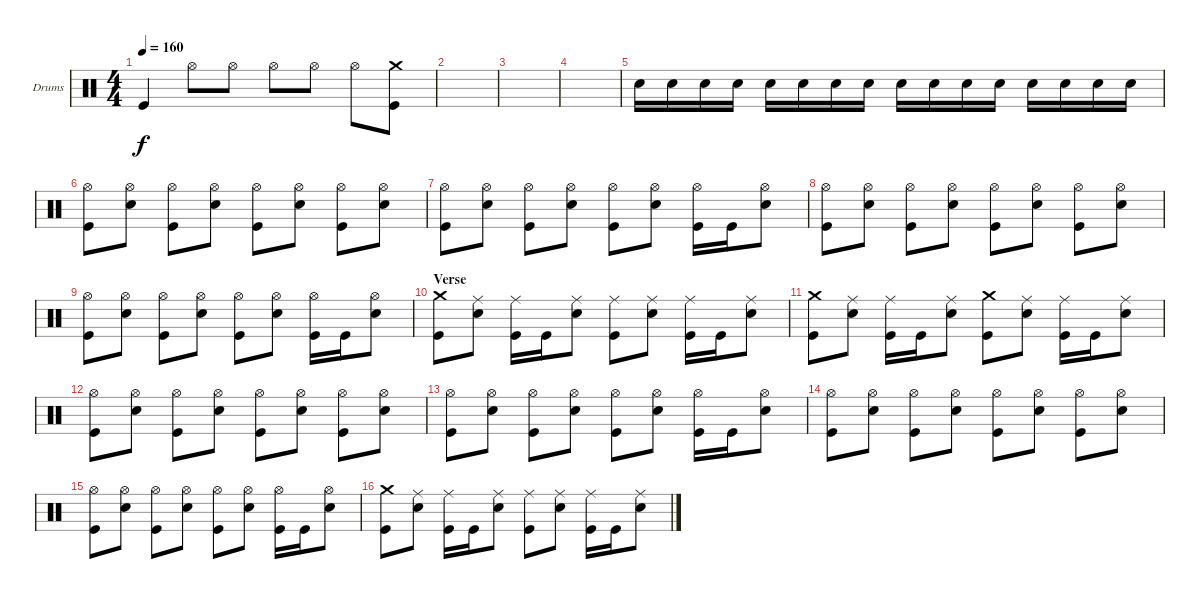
\bracketExtendMode groupsimilarinstruments
\firstSystemTrackNameOrientation horizontal
\otherSystemsTrackNameOrientation horizontal
\track ("Drums" "Drums") {instrument percussion}
\staff {score}
\articulation defaults
\ts (4 4)
\tempo 160
\clef neutral
\ks c "Kick (hit)".4{dy f} "Hi-Hat (open)".8 "Hi-Hat (open)".8 "Hi-Hat (open)".8 "Hi-Hat (open)".8 "Hi-Hat (open)".8
("Crash medium (hit)" "Kick (hit)").8 |
|
|
|
"Snare (hit) 2".16 "Snare (hit) 2".16 "Snare (hit) 2".16 "Snare (hit) 2".16 "Snare (hit) 2".16 "Snare (hit) 2".16 "Snare (hit) 2".16 "Snare (hit) 2".16 "Snare (hit) 2".16 "Snare (hit) 2".16 "Snare (hit) 2".16 "Snare (hit) 2".16 "Snare (hit) 2".16 "Snare (hit) 2".16 "Snare (hit) 2".16 "Snare (hit) 2".16 |
("Hi-Hat (open)" "Kick (hit)").8 ("Hi-Hat (open)" "Snare (hit) 2").8 ("Hi-Hat (open)" "Kick (hit)").8 ("Hi-Hat (open)" "Snare (hit) 2").8 ("Hi-Hat (open)" "Kick (hit)").8 ("Hi-Hat (open)" "Snare (hit) 2").8 ("Hi-Hat (open)" "Kick (hit)").8 ("Hi-Hat (open)" "Snare (hit) 2").8 |
("Hi-Hat (open)" "Kick (hit)").8 ("Hi-Hat (open)" "Snare (hit) 2").8 ("Hi-Hat (open)" "Kick (hit)").8 ("Hi-Hat (open)" "Snare (hit) 2").8 ("Hi-Hat (open)" "Kick (hit)").8 ("Hi-Hat (open)" "Snare (hit) 2").8 ("Hi-Hat (open)" "Kick (hit)").16 "Kick (hit)".16 ("Hi-Hat (open)" "Snare (hit) 2").8 |
("Hi-Hat (open)" "Kick (hit)").8 ("Hi-Hat (open)" "Snare (hit) 2").8 ("Hi-Hat (open)" "Kick (hit)").8 ("Hi-Hat (open)" "Snare (hit) 2").8 ("Hi-Hat (open)" "Kick (hit)").8 ("Hi-Hat (open)" "Snare (hit) 2").8 ("Hi-Hat (open)" "Kick (hit)").8 ("Hi-Hat (open)" "Snare (hit) 2").8 |
("Hi-Hat (open)" "Kick (hit)").8 ("Hi-Hat (open)" "Snare (hit) 2").8 ("Hi-Hat (open)" "Kick (hit)").8 ("Hi-Hat (open)" "Snare (hit) 2").8 ("Hi-Hat (open)" "Kick (hit)").8 ("Hi-Hat (open)" "Snare (hit) 2").8 ("Hi-Hat (open)" "Kick (hit)").16 "Kick (hit)".16 ("Hi-Hat (open)" "Snare (hit) 2").8 |
\section ("" "Verse")
("Crash medium (hit)" "Kick (hit)").8 ("Ride (middle)" "Snare (hit) 2").8 ("Ride (middle)" "Kick (hit)").16 "Kick (hit)".16 ("Ride (middle)" "Snare (hit) 2").8 ("Ride (middle)" "Kick (hit)").8 ("Ride (middle)" "Snare (hit) 2").8 ("Ride (middle)" "Kick (hit)").16 "Kick (hit)".16 ("Ride (middle)" "Snare (hit) 2").8 |
("Crash medium (hit)" "Kick (hit)").8 ("Ride (middle)" "Snare (hit) 2").8 ("Ride (middle)" "Kick (hit)").16 "Kick (hit)".16 ("Ride (middle)" "Snare (hit) 2").8 ("Crash medium (hit)" "Kick (hit)").8 ("Ride (middle)" "Snare (hit) 2").8 ("Ride (middle)" "Kick (hit)").16 "Kick (hit)".16 ("Ride (middle)" "Snare (hit) 2").8 |
("Hi-Hat (open)" "Kick (hit)").8 ("Hi-Hat (open)" "Snare (hit) 2").8 ("Hi-Hat (open)" "Kick (hit)").8 ("Hi-Hat (open)" "Snare (hit) 2").8 ("Hi-Hat (open)" "Kick (hit)").8 ("Hi-Hat (open)" "Snare (hit) 2").8 ("Hi-Hat (open)" "Kick (hit)").8 ("Hi-Hat (open)" "Snare (hit) 2").8 |
("Hi-Hat (open)" "Kick (hit)").8 ("Hi-Hat (open)" "Snare (hit) 2").8 ("Hi-Hat (open)" "Kick (hit)").8 ("Hi-Hat (open)" "Snare (hit) 2").8 ("Hi-Hat (open)" "Kick (hit)").8 ("Hi-Hat (open)" "Snare (hit) 2").8 ("Hi-Hat (open)" "Kick (hit)").16 "Kick (hit)".16 ("Hi-Hat (open)" "Snare (hit) 2").8 |
("Hi-Hat (open)" "Kick (hit)").8 ("Hi-Hat (open)" "Snare (hit) 2").8 ("Hi-Hat (open)" "Kick (hit)").8 ("Hi-Hat (open)" "Snare (hit) 2").8 ("Hi-Hat (open)" "Kick (hit)").8 ("Hi-Hat (open)" "Snare (hit) 2").8 ("Hi-Hat (open)" "Kick (hit)").8 ("Hi-Hat (open)" "Snare (hit) 2").8 |
("Hi-Hat (open)" "Kick (hit)").8 ("Hi-Hat (open)" "Snare (hit) 2").8 ("Hi-Hat (open)" "Kick (hit)").8 ("Hi-Hat (open)" "Snare (hit) 2").8 ("Hi-Hat (open)" "Kick (hit)").8 ("Hi-Hat (open)" "Snare (hit) 2").8 ("Hi-Hat (open)" "Kick (hit)").16 "Kick (hit)".16 ("Hi-Hat (open)" "Snare (hit) 2").8 |
("Crash medium (hit)" "Kick (hit)").8 ("Ride (middle)" "Snare (hit) 2").8 ("Ride (middle)" "Kick (hit)").16 "Kick (hit)".16 ("Ride (middle)" "Snare (hit) 2").8 ("Ride (middle)" "Kick (hit)").8 ("Ride (middle)" "Snare (hit) 2").8 ("Ride (middle)" "Kick (hit)").16 "Kick (hit)".16 ("Ride (middle)" "Snare (hit) 2").8
